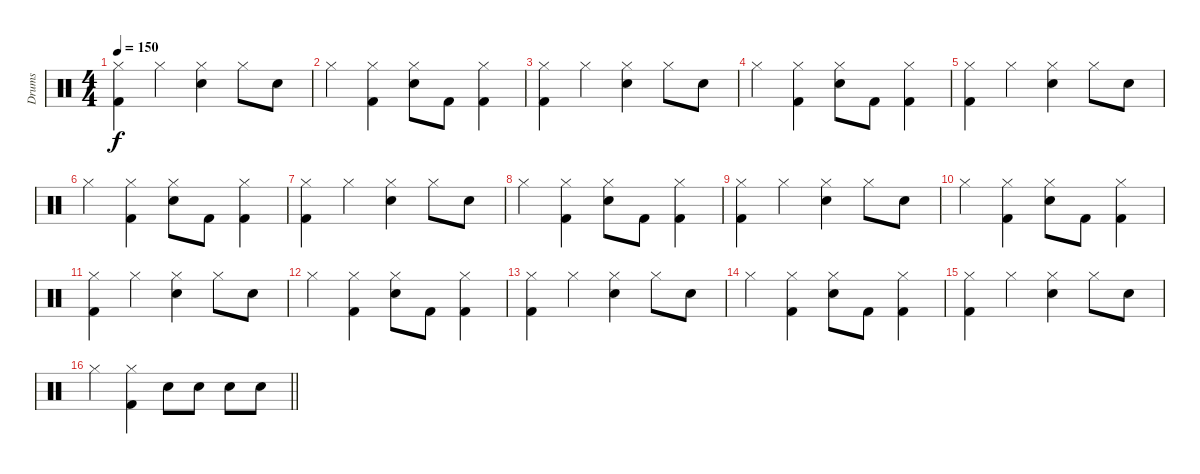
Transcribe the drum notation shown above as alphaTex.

\track ("Drums" "Drums") {instrument percussion}
\staff {score}
\articulation defaults
\ts (4 4)
\tempo 150
\clef neutral
\ks c
("Hi-Hat (closed)" "Kick (hit) 2").4{dy f} "Hi-Hat (closed)".4 ("Hi-Hat (closed)" "Electric Snare (hit)").4 "Hi-Hat (closed)".8 "Electric Snare (hit)".8 |
"Hi-Hat (closed)".4 ("Hi-Hat (closed)" "Kick (hit) 2").4 ("Hi-Hat (closed)" "Electric Snare (hit)").8 "Kick (hit) 2".8 ("Hi-Hat (closed)" "Kick (hit) 2").4 |
("Hi-Hat (closed)" "Kick (hit) 2").4 "Hi-Hat (closed)".4 ("Hi-Hat (closed)" "Electric Snare (hit)").4 "Hi-Hat (closed)".8 "Electric Snare (hit)".8 |
"Hi-Hat (closed)".4 ("Hi-Hat (closed)" "Kick (hit) 2").4 ("Hi-Hat (closed)" "Electric Snare (hit)").8 "Kick (hit) 2".8 ("Hi-Hat (closed)" "Kick (hit) 2").4 |
("Hi-Hat (closed)" "Kick (hit) 2").4 "Hi-Hat (closed)".4 ("Hi-Hat (closed)" "Electric Snare (hit)").4 "Hi-Hat (closed)".8 "Electric Snare (hit)".8 |
"Hi-Hat (closed)".4 ("Hi-Hat (closed)" "Kick (hit) 2").4 ("Hi-Hat (closed)" "Electric Snare (hit)").8 "Kick (hit) 2".8 ("Hi-Hat (closed)" "Kick (hit) 2").4 |
("Hi-Hat (closed)" "Kick (hit) 2").4 "Hi-Hat (closed)".4 ("Hi-Hat (closed)" "Electric Snare (hit)").4 "Hi-Hat (closed)".8 "Electric Snare (hit)".8 |
"Hi-Hat (closed)".4 ("Hi-Hat (closed)" "Kick (hit) 2").4 ("Hi-Hat (closed)" "Electric Snare (hit)").8 "Kick (hit) 2".8 ("Hi-Hat (closed)" "Kick (hit) 2").4 |
("Hi-Hat (closed)" "Kick (hit) 2").4 "Hi-Hat (closed)".4 ("Hi-Hat (closed)" "Electric Snare (hit)").4 "Hi-Hat (closed)".8 "Electric Snare (hit)".8 |
"Hi-Hat (closed)".4 ("Hi-Hat (closed)" "Kick (hit) 2").4 ("Hi-Hat (closed)" "Electric Snare (hit)").8 "Kick (hit) 2".8 ("Hi-Hat (closed)" "Kick (hit) 2").4 |
("Hi-Hat (closed)" "Kick (hit) 2").4 "Hi-Hat (closed)".4 ("Hi-Hat (closed)" "Electric Snare (hit)").4 "Hi-Hat (closed)".8 "Electric Snare (hit)".8 |
"Hi-Hat (closed)".4 ("Hi-Hat (closed)" "Kick (hit) 2").4 ("Hi-Hat (closed)" "Electric Snare (hit)").8 "Kick (hit) 2".8 ("Hi-Hat (closed)" "Kick (hit) 2").4 |
("Hi-Hat (closed)" "Kick (hit) 2").4 "Hi-Hat (closed)".4 ("Hi-Hat (closed)" "Electric Snare (hit)").4 "Hi-Hat (closed)".8 "Electric Snare (hit)".8 |
"Hi-Hat (closed)".4 ("Hi-Hat (closed)" "Kick (hit) 2").4 ("Hi-Hat (closed)" "Electric Snare (hit)").8 "Kick (hit) 2".8 ("Hi-Hat (closed)" "Kick (hit) 2").4 |
("Hi-Hat (closed)" "Kick (hit) 2").4 "Hi-Hat (closed)".4 ("Hi-Hat (closed)" "Electric Snare (hit)").4 "Hi-Hat (closed)".8 "Electric Snare (hit)".8 |
\barLineRight lightlight "Hi-Hat (closed)".4
("Hi-Hat (closed)" "Kick (hit) 2").4 "Electric Snare (hit)".8 "Electric Snare (hit)".8 "Electric Snare (hit)".8 "Electric Snare (hit)".8
